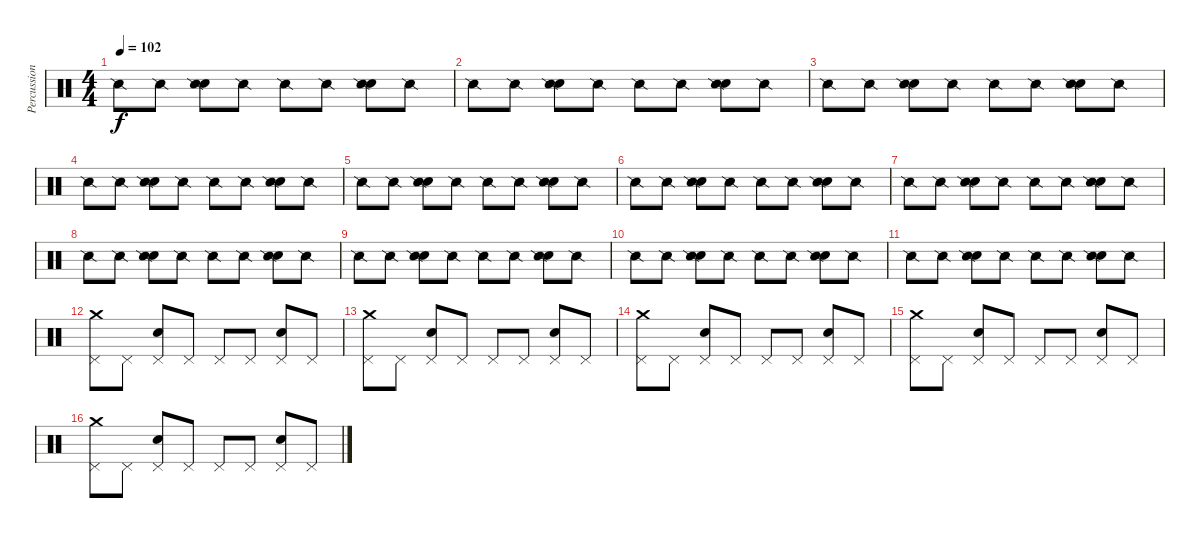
\track ("Percussion" "Percussion") {instrument percussion}
\staff {score}
\articulation defaults
\ts (4 4)
\tempo 102
\clef neutral
\ks c "Snare (side stick) 2".8{dy f} "Snare (side stick) 2".8
("Electric Snare (hit)" "Snare (side stick) 2").8 "Snare (side stick) 2".8 "Snare (side stick) 2".8 "Snare (side stick) 2".8 ("Electric Snare (hit)" "Snare (side stick) 2").8 "Snare (side stick) 2".8 |
"Snare (side stick) 2".8 "Snare (side stick) 2".8 ("Electric Snare (hit)" "Snare (side stick) 2").8 "Snare (side stick) 2".8 "Snare (side stick) 2".8 "Snare (side stick) 2".8 ("Electric Snare (hit)" "Snare (side stick) 2").8 "Snare (side stick) 2".8 |
"Snare (side stick) 2".8 "Snare (side stick) 2".8 ("Electric Snare (hit)" "Snare (side stick) 2").8 "Snare (side stick) 2".8 "Snare (side stick) 2".8 "Snare (side stick) 2".8 ("Electric Snare (hit)" "Snare (side stick) 2").8 "Snare (side stick) 2".8 |
"Snare (side stick) 2".8 "Snare (side stick) 2".8 ("Electric Snare (hit)" "Snare (side stick) 2").8 "Snare (side stick) 2".8 "Snare (side stick) 2".8 "Snare (side stick) 2".8 ("Electric Snare (hit)" "Snare (side stick) 2").8 "Snare (side stick) 2".8 |
"Snare (side stick) 2".8 "Snare (side stick) 2".8 ("Electric Snare (hit)" "Snare (side stick) 2").8 "Snare (side stick) 2".8 "Snare (side stick) 2".8 "Snare (side stick) 2".8 ("Electric Snare (hit)" "Snare (side stick) 2").8 "Snare (side stick) 2".8 |
"Snare (side stick) 2".8 "Snare (side stick) 2".8 ("Electric Snare (hit)" "Snare (side stick) 2").8 "Snare (side stick) 2".8 "Snare (side stick) 2".8 "Snare (side stick) 2".8 ("Electric Snare (hit)" "Snare (side stick) 2").8 "Snare (side stick) 2".8 |
"Snare (side stick) 2".8 "Snare (side stick) 2".8 ("Electric Snare (hit)" "Snare (side stick) 2").8 "Snare (side stick) 2".8 "Snare (side stick) 2".8 "Snare (side stick) 2".8 ("Electric Snare (hit)" "Snare (side stick) 2").8 "Snare (side stick) 2".8 |
"Snare (side stick) 2".8 "Snare (side stick) 2".8 ("Electric Snare (hit)" "Snare (side stick) 2").8 "Snare (side stick) 2".8 "Snare (side stick) 2".8 "Snare (side stick) 2".8 ("Electric Snare (hit)" "Snare (side stick) 2").8 "Snare (side stick) 2".8 |
"Snare (side stick) 2".8 "Snare (side stick) 2".8 ("Electric Snare (hit)" "Snare (side stick) 2").8 "Snare (side stick) 2".8 "Snare (side stick) 2".8 "Snare (side stick) 2".8 ("Electric Snare (hit)" "Snare (side stick) 2").8 "Snare (side stick) 2".8 |
"Snare (side stick) 2".8 "Snare (side stick) 2".8 ("Electric Snare (hit)" "Snare (side stick) 2").8 "Snare (side stick) 2".8 "Snare (side stick) 2".8 "Snare (side stick) 2".8 ("Electric Snare (hit)" "Snare (side stick) 2").8 "Snare (side stick) 2".8 |
"Snare (side stick) 2".8 "Snare (side stick) 2".8 ("Electric Snare (hit)" "Snare (side stick) 2").8 "Snare (side stick) 2".8 "Snare (side stick) 2".8 "Snare (side stick) 2".8 ("Electric Snare (hit)" "Snare (side stick) 2").8 "Snare (side stick) 2".8 |
("Crash medium (hit)" "Pedal Hi-Hat (hit)").8 "Pedal Hi-Hat (hit)".8 ("Electric Snare (hit)" "Pedal Hi-Hat (hit)").8 "Pedal Hi-Hat (hit)".8 "Pedal Hi-Hat (hit)".8 "Pedal Hi-Hat (hit)".8 ("Electric Snare (hit)" "Pedal Hi-Hat (hit)").8 "Pedal Hi-Hat (hit)".8 |
("Crash medium (hit)" "Pedal Hi-Hat (hit)").8 "Pedal Hi-Hat (hit)".8 ("Electric Snare (hit)" "Pedal Hi-Hat (hit)").8 "Pedal Hi-Hat (hit)".8 "Pedal Hi-Hat (hit)".8 "Pedal Hi-Hat (hit)".8 ("Electric Snare (hit)" "Pedal Hi-Hat (hit)").8 "Pedal Hi-Hat (hit)".8 |
("Crash medium (hit)" "Pedal Hi-Hat (hit)").8 "Pedal Hi-Hat (hit)".8 ("Electric Snare (hit)" "Pedal Hi-Hat (hit)").8 "Pedal Hi-Hat (hit)".8 "Pedal Hi-Hat (hit)".8 "Pedal Hi-Hat (hit)".8 ("Electric Snare (hit)" "Pedal Hi-Hat (hit)").8 "Pedal Hi-Hat (hit)".8 |
("Crash medium (hit)" "Pedal Hi-Hat (hit)").8 "Pedal Hi-Hat (hit)".8 ("Electric Snare (hit)" "Pedal Hi-Hat (hit)").8 "Pedal Hi-Hat (hit)".8 "Pedal Hi-Hat (hit)".8 "Pedal Hi-Hat (hit)".8 ("Electric Snare (hit)" "Pedal Hi-Hat (hit)").8 "Pedal Hi-Hat (hit)".8 |
("Crash medium (hit)" "Pedal Hi-Hat (hit)").8 "Pedal Hi-Hat (hit)".8 ("Electric Snare (hit)" "Pedal Hi-Hat (hit)").8 "Pedal Hi-Hat (hit)".8 "Pedal Hi-Hat (hit)".8 "Pedal Hi-Hat (hit)".8 ("Electric Snare (hit)" "Pedal Hi-Hat (hit)").8 "Pedal Hi-Hat (hit)".8
